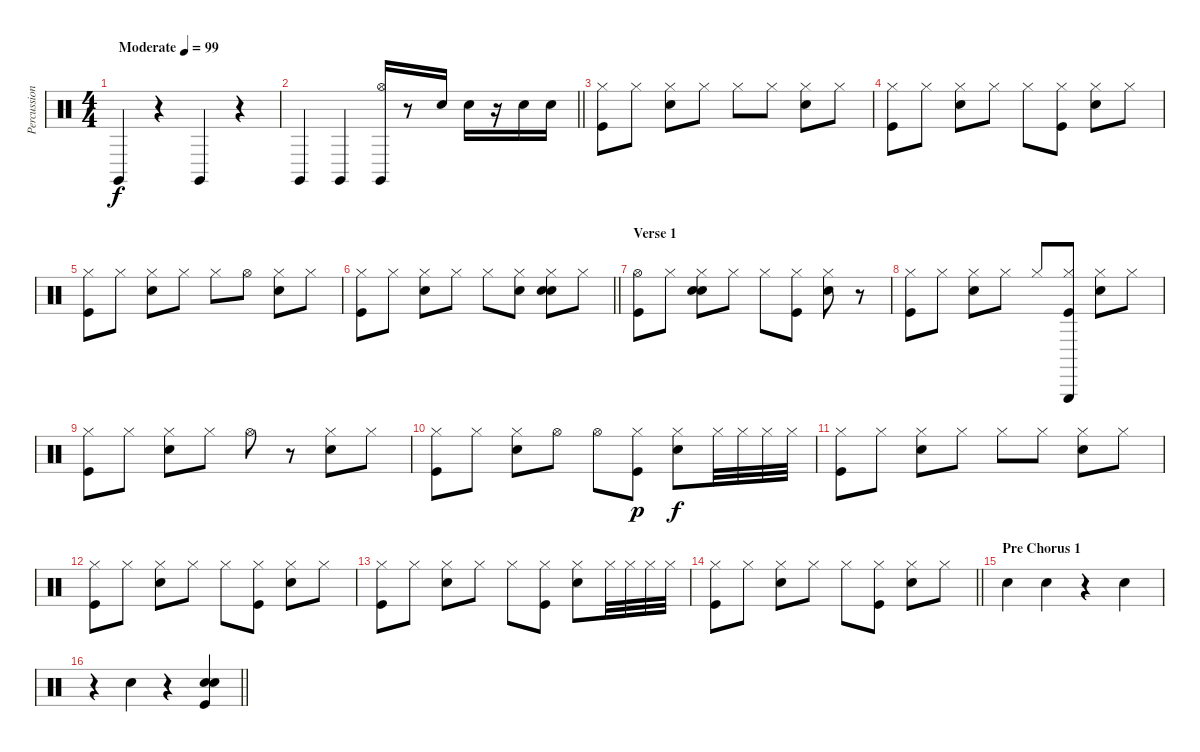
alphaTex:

\track ("Percussion" "Percussion") {instrument percussion}
\staff {score}
\articulation defaults
\ts (4 4)
\tempo (99 "Moderate")
\clef neutral
\ks c "Claves (hit)".4{dy f}
r.4 "Claves (hit)".4 r.4 |
\barLineRight lightlight "Claves (hit)".4 "Claves (hit)".4
("Claves (hit)" "Hi-Hat (open)").16 r.8 "Electric Snare (hit)".16 "Electric Snare (hit)".16 r.16 "Electric Snare (hit)".16 "Electric Snare (hit)".16 |
\section ("" "")
("Hi-Hat (closed)" "Kick (hit)").8 "Hi-Hat (closed)".8 ("Hi-Hat (closed)" "Snare (hit) 2").8 "Hi-Hat (closed)".8 "Hi-Hat (closed)".8 "Hi-Hat (closed)".8 ("Hi-Hat (closed)" "Snare (hit) 2").8 "Hi-Hat (closed)".8 |
("Hi-Hat (closed)" "Kick (hit)").8 "Hi-Hat (closed)".8 ("Hi-Hat (closed)" "Snare (hit) 2").8 "Hi-Hat (closed)".8 "Hi-Hat (closed)".8 ("Hi-Hat (closed)" "Kick (hit)").8 ("Hi-Hat (closed)" "Snare (hit) 2").8 "Hi-Hat (closed)".8 |
("Hi-Hat (closed)" "Kick (hit)").8 "Hi-Hat (closed)".8 ("Hi-Hat (closed)" "Snare (hit) 2").8 "Hi-Hat (closed)".8 "Hi-Hat (closed)".8 "Hi-Hat (open)".8 ("Hi-Hat (closed)" "Snare (hit) 2").8 "Hi-Hat (closed)".8 |
\barLineRight lightlight
("Hi-Hat (closed)" "Kick (hit)").8 "Hi-Hat (closed)".8 ("Hi-Hat (closed)" "Snare (hit) 2").8 "Hi-Hat (closed)".8 "Hi-Hat (closed)".8 ("Hi-Hat (closed)" "Snare (hit) 2").8 ("Hi-Hat (closed)" "Hand Clap (hit)" "Snare (hit) 2").8 "Hi-Hat (closed)".8 |
\section ("" "Verse 1")
("Hi-Hat (open)" "Kick (hit)").8 "Hi-Hat (closed)".8 ("Hi-Hat (closed)" "Hand Clap (hit)" "Snare (hit) 2").8 "Hi-Hat (closed)".8 "Hi-Hat (closed)".8 ("Hi-Hat (closed)" "Kick (hit)").8 ("Hi-Hat (closed)" "Snare (hit) 2").8 r.8 |
("Hi-Hat (closed)" "Kick (hit)").8 "Hi-Hat (closed)".8 ("Hi-Hat (closed)" "Snare (hit) 2").8 "Hi-Hat (closed)".8 "Hi-Hat (closed)".8 ("Triangle (hit)" "Hi-Hat (closed)" "Kick (hit)").8 ("Hi-Hat (closed)" "Snare (hit) 2").8 "Hi-Hat (closed)".8 |
("Hi-Hat (closed)" "Kick (hit)").8 "Hi-Hat (closed)".8 ("Hi-Hat (closed)" "Snare (hit) 2").8 "Hi-Hat (closed)".8 "Hi-Hat (open)".8 r.8 ("Hi-Hat (closed)" "Snare (hit) 2").8 "Hi-Hat (closed)".8 |
("Hi-Hat (closed)" "Kick (hit)").8 "Hi-Hat (closed)".8 ("Hi-Hat (closed)" "Snare (hit) 2").8 "Hi-Hat (open)".8 "Hi-Hat (open)".8 ("Hi-Hat (closed)" "Kick (hit)").8{dy p} ("Hi-Hat (closed)" "Snare (hit) 2").8{dy f} "Hi-Hat (closed)".32 "Hi-Hat (closed)".32 "Hi-Hat (closed)".32 "Hi-Hat (closed)".32 |
("Hi-Hat (closed)" "Kick (hit)").8 "Hi-Hat (closed)".8 ("Hi-Hat (closed)" "Snare (hit) 2").8 "Hi-Hat (closed)".8 "Hi-Hat (closed)".8 "Hi-Hat (closed)".8 ("Hi-Hat (closed)" "Snare (hit) 2").8 "Hi-Hat (closed)".8 |
("Hi-Hat (closed)" "Kick (hit)").8 "Hi-Hat (closed)".8 ("Hi-Hat (closed)" "Snare (hit) 2").8 "Hi-Hat (closed)".8 "Hi-Hat (closed)".8 ("Hi-Hat (closed)" "Kick (hit)").8 ("Hi-Hat (closed)" "Snare (hit) 2").8 "Hi-Hat (closed)".8 |
("Hi-Hat (closed)" "Kick (hit)").8 "Hi-Hat (closed)".8 ("Hi-Hat (closed)" "Snare (hit) 2").8 "Hi-Hat (closed)".8 "Hi-Hat (closed)".8 ("Hi-Hat (closed)" "Kick (hit)").8 ("Hi-Hat (closed)" "Snare (hit) 2").8 "Hi-Hat (closed)".32 "Hi-Hat (closed)".32 "Hi-Hat (closed)".32 "Hi-Hat (closed)".32 |
\barLineRight lightlight
("Hi-Hat (closed)" "Kick (hit)").8 "Hi-Hat (closed)".8 ("Hi-Hat (closed)" "Snare (hit) 2").8 "Hi-Hat (closed)".8 "Hi-Hat (closed)".8 ("Hi-Hat (closed)" "Kick (hit)").8 ("Hi-Hat (closed)" "Snare (hit) 2").8 "Hi-Hat (closed)".8 |
\section ("" "Pre Chorus 1")
"Snare (hit) 2".4 "Hand Clap (hit)".4 r.4 "Hand Clap (hit)".4 |
\barLineRight lightlight
r.4 "Hand Clap (hit)".4 r.4 ("Hand Clap (hit)" "Snare (hit) 2" "Kick (hit)").4
